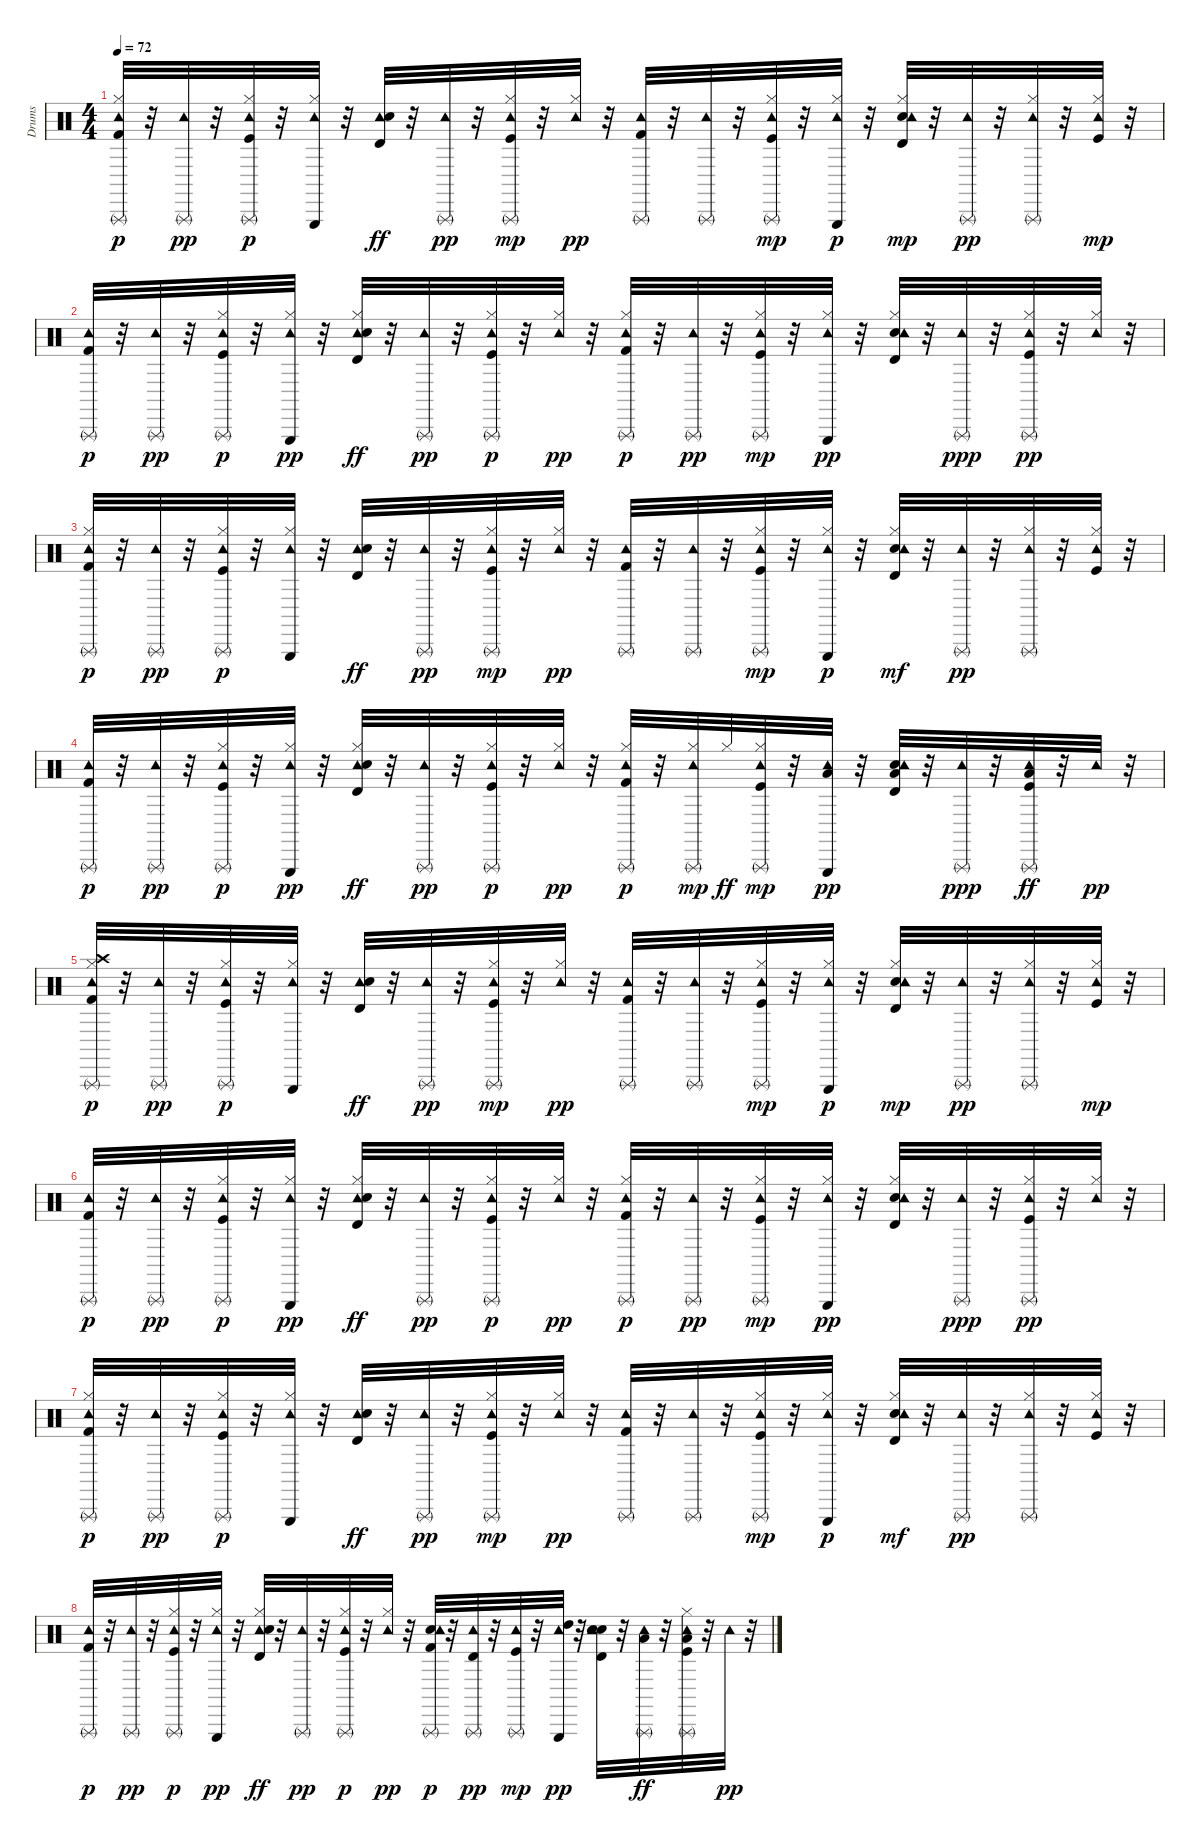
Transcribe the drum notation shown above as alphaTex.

\track ("Drums" "Drums") {instrument percussion}
\staff {score}
\articulation defaults
\ts (4 4)
\tempo 72
\clef neutral
\ks c
("Hi-Hat (closed)" "Tambourine (hit)" "Triangle (rnute)" "Kick (hit) 2").32{dy p} r.32 ("Triangle (rnute)" "Tambourine (hit)").32{dy pp} r.32 ("Kick (hit)" "Hi-Hat (closed)" "Tambourine (hit)" "Triangle (rnute)").32{dy p} r.32 ("Hi-Hat (closed)" "Tambourine (hit)" "Triangle (hit)").32 r.32 ("Tambourine (hit)" "Electric Snare (hit)" "Timbale high (hit)").32{dy ff} r.32 ("Triangle (rnute)" "Tambourine (hit)").32{dy pp} r.32 ("Kick (hit)" "Hi-Hat (closed)" "Tambourine (hit)" "Triangle (rnute)").32{dy mp} r.32 ("Hi-Hat (closed)" "Tambourine (hit)").32{dy pp} r.32 ("Tambourine (hit)" "Kick (hit) 2" "Triangle (rnute)").32 r.32 ("Triangle (rnute)" "Tambourine (hit)").32 r.32 ("Hi-Hat (closed)" "Triangle (rnute)" "Tambourine (hit)" "Kick (hit)").32{dy mp} r.32 ("Hi-Hat (closed)" "Tambourine (hit)" "Triangle (hit)").32{dy p} r.32 ("Timbale high (hit)" "Electric Snare (hit)" "Tambourine (hit)" "Hi-Hat (closed)").32{dy mp} r.32 ("Tambourine (hit)" "Triangle (rnute)").32{dy pp} r.32 ("Tambourine (hit)" "Hi-Hat (closed)" "Triangle (rnute)").32 r.32 ("Kick (hit)" "Tambourine (hit)" "Hi-Hat (closed)").32{dy mp} r.32 |
("Kick (hit) 2" "Tambourine (hit)" "Triangle (rnute)").32{dy p} r.32 ("Triangle (rnute)" "Tambourine (hit)").32{dy pp} r.32 ("Kick (hit)" "Hi-Hat (closed)" "Triangle (rnute)" "Tambourine (hit)").32{dy p} r.32 ("Hi-Hat (closed)" "Triangle (hit)" "Tambourine (hit)").32{dy pp} r.32 ("Hi-Hat (closed)" "Tambourine (hit)" "Electric Snare (hit)" "Timbale high (hit)").32{dy ff} r.32 ("Tambourine (hit)" "Triangle (rnute)").32{dy pp} r.32 ("Kick (hit)" "Hi-Hat (closed)" "Tambourine (hit)" "Triangle (rnute)").32{dy p} r.32 ("Hi-Hat (closed)" "Tambourine (hit)").32{dy pp} r.32 ("Hi-Hat (closed)" "Triangle (rnute)" "Tambourine (hit)" "Kick (hit) 2").32{dy p} r.32 ("Triangle (rnute)" "Tambourine (hit)").32{dy pp} r.32 ("Hi-Hat (closed)" "Triangle (rnute)" "Tambourine (hit)" "Kick (hit)").32{dy mp} r.32 ("Hi-Hat (closed)" "Triangle (hit)" "Tambourine (hit)").32{dy pp} r.32 ("Electric Snare (hit)" "Timbale high (hit)" "Hi-Hat (closed)" "Tambourine (hit)").32 r.32 ("Triangle (rnute)" "Tambourine (hit)").32{dy ppp} r.32 ("Kick (hit)" "Hi-Hat (closed)" "Triangle (rnute)" "Tambourine (hit)").32{dy pp} r.32 ("Hi-Hat (closed)" "Tambourine (hit)").32 r.32 |
("Hi-Hat (closed)" "Tambourine (hit)" "Triangle (rnute)" "Kick (hit) 2").32{dy p} r.32 ("Triangle (rnute)" "Tambourine (hit)").32{dy pp} r.32 ("Kick (hit)" "Hi-Hat (closed)" "Tambourine (hit)" "Triangle (rnute)").32{dy p} r.32 ("Hi-Hat (closed)" "Tambourine (hit)" "Triangle (hit)").32 r.32 ("Tambourine (hit)" "Electric Snare (hit)" "Timbale high (hit)").32{dy ff} r.32 ("Triangle (rnute)" "Tambourine (hit)").32{dy pp} r.32 ("Kick (hit)" "Hi-Hat (closed)" "Tambourine (hit)" "Triangle (rnute)").32{dy mp} r.32 ("Hi-Hat (closed)" "Tambourine (hit)").32{dy pp} r.32 ("Tambourine (hit)" "Kick (hit) 2" "Triangle (rnute)").32 r.32 ("Triangle (rnute)" "Tambourine (hit)").32 r.32 ("Hi-Hat (closed)" "Triangle (rnute)" "Tambourine (hit)" "Kick (hit)").32{dy mp} r.32 ("Hi-Hat (closed)" "Tambourine (hit)" "Triangle (hit)").32{dy p} r.32 ("Timbale high (hit)" "Electric Snare (hit)" "Tambourine (hit)" "Hi-Hat (closed)").32{dy mf} r.32 ("Tambourine (hit)" "Triangle (rnute)").32{dy pp} r.32 ("Tambourine (hit)" "Hi-Hat (closed)" "Triangle (rnute)").32 r.32 ("Kick (hit)" "Tambourine (hit)" "Hi-Hat (closed)").32 r.32 |
("Kick (hit) 2" "Tambourine (hit)" "Triangle (rnute)").32{dy p} r.32 ("Triangle (rnute)" "Tambourine (hit)").32{dy pp} r.32 ("Kick (hit)" "Hi-Hat (closed)" "Triangle (rnute)" "Tambourine (hit)").32{dy p} r.32 ("Hi-Hat (closed)" "Triangle (hit)" "Tambourine (hit)").32{dy pp} r.32 ("Hi-Hat (closed)" "Tambourine (hit)" "Electric Snare (hit)" "Timbale high (hit)").32{dy ff} r.32 ("Tambourine (hit)" "Triangle (rnute)").32{dy pp} r.32 ("Kick (hit)" "Hi-Hat (closed)" "Tambourine (hit)" "Triangle (rnute)").32{dy p} r.32 ("Hi-Hat (closed)" "Tambourine (hit)").32{dy pp} r.32 ("Hi-Hat (closed)" "Triangle (rnute)" "Tambourine (hit)" "Kick (hit) 2").32{dy p} r.32 ("Triangle (rnute)" "Tambourine (hit)" "Hi-Hat (closed)").32{dy mp} "Hi-Hat (closed)".32{dy ff} ("Hi-Hat (closed)" "Triangle (rnute)" "Tambourine (hit)" "Kick (hit)").32{dy mp} r.32 ("Low Tom (hit)" "Triangle (hit)" "Tambourine (hit)").32{dy pp} r.32 ("Electric Snare (hit)" "Timbale high (hit)" "Low Tom (hit)" "Tambourine (hit)").32 r.32 ("Triangle (rnute)" "Tambourine (hit)").32{dy ppp} r.32 ("Kick (hit)" "Triangle (rnute)" "Tambourine (hit)" "Low Floor Tom (hit)").32{dy ff} r.32 "Tambourine (hit)".32{dy pp} r.32 |
("Hi-Hat (closed)" "Crash high (hit)" "Tambourine (hit)" "Triangle (rnute)" "Kick (hit) 2").32{dy p} r.32 ("Triangle (rnute)" "Tambourine (hit)").32{dy pp} r.32 ("Kick (hit)" "Hi-Hat (closed)" "Tambourine (hit)" "Triangle (rnute)").32{dy p} r.32 ("Hi-Hat (closed)" "Tambourine (hit)" "Triangle (hit)").32 r.32 ("Tambourine (hit)" "Electric Snare (hit)" "Timbale high (hit)").32{dy ff} r.32 ("Triangle (rnute)" "Tambourine (hit)").32{dy pp} r.32 ("Kick (hit)" "Hi-Hat (closed)" "Tambourine (hit)" "Triangle (rnute)").32{dy mp} r.32 ("Hi-Hat (closed)" "Tambourine (hit)").32{dy pp} r.32 ("Tambourine (hit)" "Kick (hit) 2" "Triangle (rnute)").32 r.32 ("Triangle (rnute)" "Tambourine (hit)").32 r.32 ("Hi-Hat (closed)" "Triangle (rnute)" "Tambourine (hit)" "Kick (hit)").32{dy mp} r.32 ("Hi-Hat (closed)" "Tambourine (hit)" "Triangle (hit)").32{dy p} r.32 ("Timbale high (hit)" "Electric Snare (hit)" "Tambourine (hit)" "Hi-Hat (closed)").32{dy mp} r.32 ("Tambourine (hit)" "Triangle (rnute)").32{dy pp} r.32 ("Tambourine (hit)" "Hi-Hat (closed)" "Triangle (rnute)").32 r.32 ("Kick (hit)" "Tambourine (hit)" "Hi-Hat (closed)").32{dy mp} r.32 |
("Kick (hit) 2" "Tambourine (hit)" "Triangle (rnute)").32{dy p} r.32 ("Triangle (rnute)" "Tambourine (hit)").32{dy pp} r.32 ("Kick (hit)" "Hi-Hat (closed)" "Triangle (rnute)" "Tambourine (hit)").32{dy p} r.32 ("Hi-Hat (closed)" "Triangle (hit)" "Tambourine (hit)").32{dy pp} r.32 ("Hi-Hat (closed)" "Tambourine (hit)" "Electric Snare (hit)" "Timbale high (hit)").32{dy ff} r.32 ("Tambourine (hit)" "Triangle (rnute)").32{dy pp} r.32 ("Kick (hit)" "Hi-Hat (closed)" "Tambourine (hit)" "Triangle (rnute)").32{dy p} r.32 ("Hi-Hat (closed)" "Tambourine (hit)").32{dy pp} r.32 ("Hi-Hat (closed)" "Triangle (rnute)" "Tambourine (hit)" "Kick (hit) 2").32{dy p} r.32 ("Triangle (rnute)" "Tambourine (hit)").32{dy pp} r.32 ("Hi-Hat (closed)" "Triangle (rnute)" "Tambourine (hit)" "Kick (hit)").32{dy mp} r.32 ("Hi-Hat (closed)" "Triangle (hit)" "Tambourine (hit)").32{dy pp} r.32 ("Electric Snare (hit)" "Timbale high (hit)" "Hi-Hat (closed)" "Tambourine (hit)").32 r.32 ("Triangle (rnute)" "Tambourine (hit)").32{dy ppp} r.32 ("Kick (hit)" "Hi-Hat (closed)" "Triangle (rnute)" "Tambourine (hit)").32{dy pp} r.32 ("Hi-Hat (closed)" "Tambourine (hit)").32 r.32 |
("Hi-Hat (closed)" "Tambourine (hit)" "Triangle (rnute)" "Kick (hit) 2").32{dy p} r.32 ("Triangle (rnute)" "Tambourine (hit)").32{dy pp} r.32 ("Kick (hit)" "Hi-Hat (closed)" "Tambourine (hit)" "Triangle (rnute)").32{dy p} r.32 ("Hi-Hat (closed)" "Tambourine (hit)" "Triangle (hit)").32 r.32 ("Tambourine (hit)" "Electric Snare (hit)" "Timbale high (hit)").32{dy ff} r.32 ("Triangle (rnute)" "Tambourine (hit)").32{dy pp} r.32 ("Kick (hit)" "Hi-Hat (closed)" "Tambourine (hit)" "Triangle (rnute)").32{dy mp} r.32 ("Hi-Hat (closed)" "Tambourine (hit)").32{dy pp} r.32 ("Tambourine (hit)" "Kick (hit) 2" "Triangle (rnute)").32 r.32 ("Triangle (rnute)" "Tambourine (hit)").32 r.32 ("Hi-Hat (closed)" "Triangle (rnute)" "Tambourine (hit)" "Kick (hit)").32{dy mp} r.32 ("Hi-Hat (closed)" "Tambourine (hit)" "Triangle (hit)").32{dy p} r.32 ("Timbale high (hit)" "Electric Snare (hit)" "Tambourine (hit)" "Hi-Hat (closed)").32{dy mf} r.32 ("Tambourine (hit)" "Triangle (rnute)").32{dy pp} r.32 ("Tambourine (hit)" "Hi-Hat (closed)" "Triangle (rnute)").32 r.32 ("Kick (hit)" "Tambourine (hit)" "Hi-Hat (closed)").32 r.32 |
("Kick (hit) 2" "Tambourine (hit)" "Triangle (rnute)").32{dy p} r.32 ("Triangle (rnute)" "Tambourine (hit)").32{dy pp} r.32 ("Kick (hit)" "Hi-Hat (closed)" "Triangle (rnute)" "Tambourine (hit)").32{dy p} r.32 ("Hi-Hat (closed)" "Triangle (hit)" "Tambourine (hit)").32{dy pp} r.32 ("Hi-Hat (closed)" "Tambourine (hit)" "Electric Snare (hit)" "Timbale high (hit)").32{dy ff} r.32 ("Tambourine (hit)" "Triangle (rnute)").32{dy pp} r.32 ("Kick (hit)" "Hi-Hat (closed)" "Tambourine (hit)" "Triangle (rnute)").32{dy p} r.32 ("Hi-Hat (closed)" "Tambourine (hit)").32{dy pp} r.32 ("Snare (hit) 2" "Triangle (rnute)" "Tambourine (hit)" "Kick (hit) 2").32{dy p} r.32 ("Triangle (rnute)" "Tambourine (hit)" "Timbale high (hit)").32{dy pp} r.32 ("Triangle (rnute)" "Tambourine (hit)" "Kick (hit)").32{dy mp} r.32 ("High Tom (hit)" "Triangle (hit)" "Tambourine (hit)").32{dy pp} r.32 ("Snare (hit) 2" "Electric Snare (hit)" "Timbale high (hit)" "Tambourine (hit)").32 r.32 ("Triangle (rnute)" "Tambourine (hit)" "Low Tom (hit)").32{dy ff} r.32 ("Kick (hit)" "Hi-Hat (closed)" "Triangle (rnute)" "Tambourine (hit)" "Low Tom (hit)").32 r.32 "Tambourine (hit)".32{dy pp} r.32
